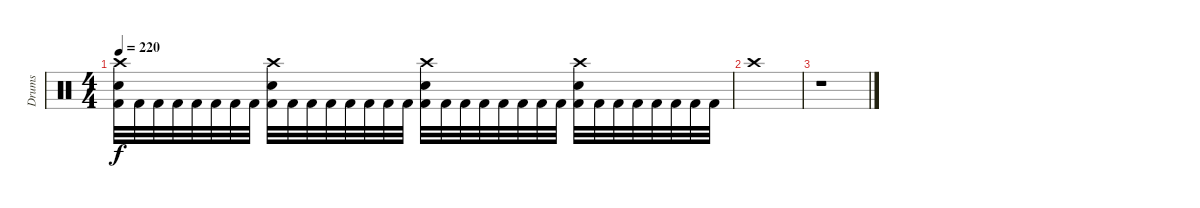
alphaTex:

\track ("Drums" "Drums") {instrument percussion}
\staff {score}
\articulation defaults
\ts (4 4)
\tempo 220
\clef neutral
\ks c
("Crash high (hit)" "Snare (hit) 2" "Kick (hit) 2").32{dy f} "Kick (hit) 2".32 "Kick (hit) 2".32 "Kick (hit) 2".32 "Kick (hit) 2".32 "Kick (hit) 2".32 "Kick (hit) 2".32 "Kick (hit) 2".32 ("Crash high (hit)" "Snare (hit) 2" "Kick (hit) 2").32 "Kick (hit) 2".32 "Kick (hit) 2".32 "Kick (hit) 2".32 "Kick (hit) 2".32 "Kick (hit) 2".32 "Kick (hit) 2".32 "Kick (hit) 2".32 ("Crash high (hit)" "Snare (hit) 2" "Kick (hit) 2").32 "Kick (hit) 2".32 "Kick (hit) 2".32 "Kick (hit) 2".32 "Kick (hit) 2".32 "Kick (hit) 2".32 "Kick (hit) 2".32 "Kick (hit) 2".32 ("Crash high (hit)" "Snare (hit) 2" "Kick (hit) 2").32 "Kick (hit) 2".32 "Kick (hit) 2".32 "Kick (hit) 2".32 "Kick (hit) 2".32 "Kick (hit) 2".32 "Kick (hit) 2".32 "Kick (hit) 2".32 |
"Crash high (hit)".1 |
r.1
